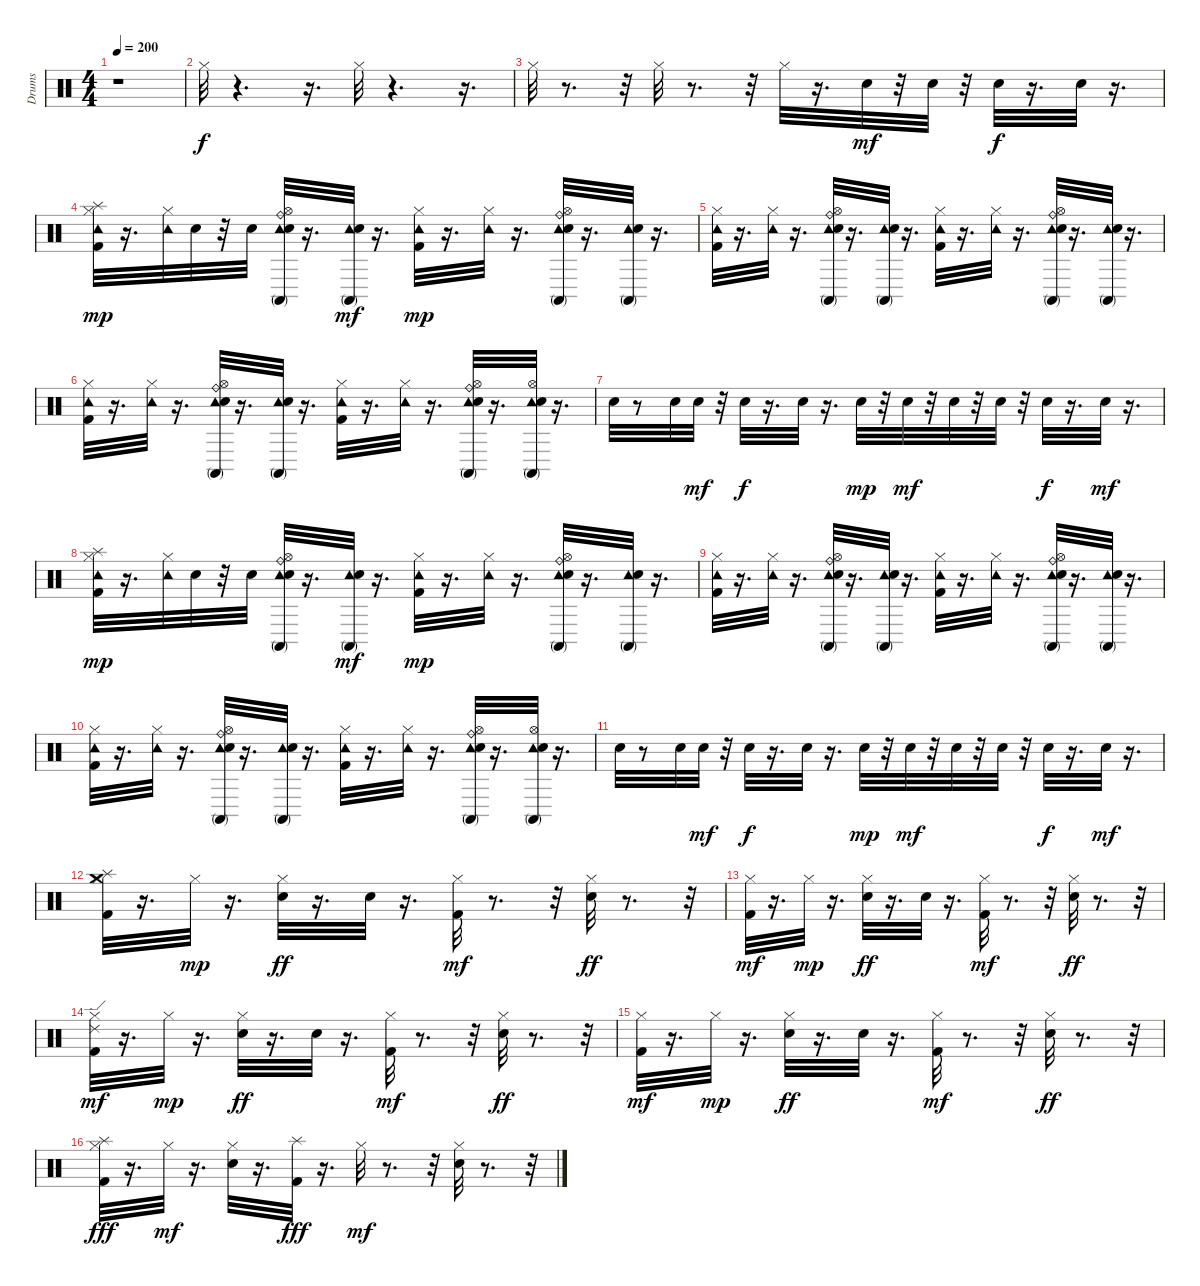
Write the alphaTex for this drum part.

\track ("Drums" "Drums") {instrument percussion}
\staff {score}
\articulation defaults
\ts (4 4)
\tempo 200
\clef neutral
\ks c
r.1{dy f} |
"Hi-Hat (closed)".32 r.4{d} r.16{d} "Hi-Hat (closed)".32 r.4{d} r.16{d} |
"Hi-Hat (closed)".32 r.8{d} r.32 "Hi-Hat (closed)".32 r.8{d} r.32 "Hi-Hat (closed)".32 r.16{d} "Electric Snare (hit)".32{dy mf} r.32 "Electric Snare (hit)".32 r.32 "Electric Snare (hit)".32{dy f} r.16{d} "Electric Snare (hit)".32 r.16{d} |
("Splash (hit)" "Kick (hit) 2" "Hi-Hat (closed)" "Tambourine (hit)").32{dy mp} r.16{d} ("Tambourine (hit)" "Hi-Hat (closed)").32 "Electric Snare (hit)".32 r.32 "Electric Snare (hit)".32 ("Tambourine (hit)" "Hi-Hat (open)" "Ride (bell)" "Electric Snare (hit)" "Conga high (mute)").32 r.16{d} ("Tambourine (hit)" "Conga high (mute)" "Electric Snare (hit)").32{dy mf} r.16{d} ("Tambourine (hit)" "Hi-Hat (closed)" "Kick (hit) 2").32{dy mp} r.16{d} ("Tambourine (hit)" "Hi-Hat (closed)").32 r.16{d} ("Tambourine (hit)" "Ride (bell)" "Hi-Hat (open)" "Conga high (mute)" "Electric Snare (hit)").32 r.16{d} ("Tambourine (hit)" "Conga high (mute)" "Electric Snare (hit)").32 r.16{d} |
("Tambourine (hit)" "Hi-Hat (closed)" "Kick (hit) 2").32 r.16{d} ("Tambourine (hit)" "Hi-Hat (closed)").32 r.16{d} ("Tambourine (hit)" "Ride (bell)" "Hi-Hat (open)" "Conga high (mute)" "Electric Snare (hit)").32 r.16{d} ("Tambourine (hit)" "Conga high (mute)" "Electric Snare (hit)").32 r.16{d} ("Tambourine (hit)" "Hi-Hat (closed)" "Kick (hit) 2").32 r.16{d} ("Tambourine (hit)" "Hi-Hat (closed)").32 r.16{d} ("Tambourine (hit)" "Ride (bell)" "Hi-Hat (open)" "Conga high (mute)" "Electric Snare (hit)").32 r.16{d} ("Tambourine (hit)" "Conga high (mute)" "Electric Snare (hit)").32 r.16{d} |
("Tambourine (hit)" "Hi-Hat (closed)" "Kick (hit) 2").32 r.16{d} ("Tambourine (hit)" "Hi-Hat (closed)").32 r.16{d} ("Tambourine (hit)" "Hi-Hat (open)" "Ride (bell)" "Conga high (mute)" "Electric Snare (hit)").32 r.16{d} ("Tambourine (hit)" "Conga high (mute)" "Electric Snare (hit)").32 r.16{d} ("Tambourine (hit)" "Hi-Hat (closed)" "Kick (hit) 2").32 r.16{d} ("Tambourine (hit)" "Hi-Hat (closed)").32 r.16{d} ("Tambourine (hit)" "Hi-Hat (open)" "Ride (bell)" "Conga high (mute)" "Electric Snare (hit)").32 r.16{d} ("Tambourine (hit)" "Conga high (mute)" "Electric Snare (hit)" "Hi-Hat (open)").32 r.16{d} |
"Electric Snare (hit)".32 r.8 "Electric Snare (hit)".32 "Electric Snare (hit)".32{dy mf} r.32 "Electric Snare (hit)".32{dy f} r.16{d} "Electric Snare (hit)".32 r.16{d} "Electric Snare (hit)".32{dy mp} r.32 "Electric Snare (hit)".32{dy mf} r.32 "Electric Snare (hit)".32 r.32 "Electric Snare (hit)".32 r.32 "Electric Snare (hit)".32{dy f} r.16{d} "Electric Snare (hit)".32{dy mf} r.16{d} |
("Splash (hit)" "Kick (hit) 2" "Hi-Hat (closed)" "Tambourine (hit)").32{dy mp} r.16{d} ("Tambourine (hit)" "Hi-Hat (closed)").32 "Electric Snare (hit)".32 r.32 "Electric Snare (hit)".32 ("Tambourine (hit)" "Hi-Hat (open)" "Ride (bell)" "Electric Snare (hit)" "Conga high (mute)").32 r.16{d} ("Tambourine (hit)" "Conga high (mute)" "Electric Snare (hit)").32{dy mf} r.16{d} ("Tambourine (hit)" "Hi-Hat (closed)" "Kick (hit) 2").32{dy mp} r.16{d} ("Tambourine (hit)" "Hi-Hat (closed)").32 r.16{d} ("Tambourine (hit)" "Ride (bell)" "Hi-Hat (open)" "Conga high (mute)" "Electric Snare (hit)").32 r.16{d} ("Tambourine (hit)" "Conga high (mute)" "Electric Snare (hit)").32 r.16{d} |
("Tambourine (hit)" "Hi-Hat (closed)" "Kick (hit) 2").32 r.16{d} ("Tambourine (hit)" "Hi-Hat (closed)").32 r.16{d} ("Tambourine (hit)" "Ride (bell)" "Hi-Hat (open)" "Conga high (mute)" "Electric Snare (hit)").32 r.16{d} ("Tambourine (hit)" "Conga high (mute)" "Electric Snare (hit)").32 r.16{d} ("Tambourine (hit)" "Hi-Hat (closed)" "Kick (hit) 2").32 r.16{d} ("Tambourine (hit)" "Hi-Hat (closed)").32 r.16{d} ("Tambourine (hit)" "Ride (bell)" "Hi-Hat (open)" "Conga high (mute)" "Electric Snare (hit)").32 r.16{d} ("Tambourine (hit)" "Conga high (mute)" "Electric Snare (hit)").32 r.16{d} |
("Tambourine (hit)" "Hi-Hat (closed)" "Kick (hit) 2").32 r.16{d} ("Tambourine (hit)" "Hi-Hat (closed)").32 r.16{d} ("Tambourine (hit)" "Hi-Hat (open)" "Ride (bell)" "Conga high (mute)" "Electric Snare (hit)").32 r.16{d} ("Tambourine (hit)" "Conga high (mute)" "Electric Snare (hit)").32 r.16{d} ("Tambourine (hit)" "Hi-Hat (closed)" "Kick (hit) 2").32 r.16{d} ("Tambourine (hit)" "Hi-Hat (closed)").32 r.16{d} ("Tambourine (hit)" "Hi-Hat (open)" "Ride (bell)" "Conga high (mute)" "Electric Snare (hit)").32 r.16{d} ("Tambourine (hit)" "Conga high (mute)" "Electric Snare (hit)" "Hi-Hat (open)").32 r.16{d} |
"Electric Snare (hit)".32 r.8 "Electric Snare (hit)".32 "Electric Snare (hit)".32{dy mf} r.32 "Electric Snare (hit)".32{dy f} r.16{d} "Electric Snare (hit)".32 r.16{d} "Electric Snare (hit)".32{dy mp} r.32 "Electric Snare (hit)".32{dy mf} r.32 "Electric Snare (hit)".32 r.32 "Electric Snare (hit)".32 r.32 "Electric Snare (hit)".32{dy f} r.16{d} "Electric Snare (hit)".32{dy mf} r.16{d} |
("Hi-Hat (closed)" "Splash (hit)" "Crash medium (hit)" "Kick (hit) 2").32 r.16{d} "Hi-Hat (closed)".32{dy mp} r.16{d} ("Hi-Hat (closed)" "Electric Snare (hit)").32{dy ff} r.16{d} "Electric Snare (hit)".32 r.16{d} ("Hi-Hat (closed)" "Kick (hit) 2").32{dy mf} r.8{d} r.32 ("Hi-Hat (closed)" "Electric Snare (hit)").32{dy ff} r.8{d} r.32 |
("Hi-Hat (closed)" "Kick (hit) 2").32{dy mf} r.16{d} "Hi-Hat (closed)".32{dy mp} r.16{d} ("Hi-Hat (closed)" "Electric Snare (hit)").32{dy ff} r.16{d} "Electric Snare (hit)".32 r.16{d} ("Hi-Hat (closed)" "Kick (hit) 2").32{dy mf} r.8{d} r.32 ("Hi-Hat (closed)" "Electric Snare (hit)").32{dy ff} r.8{d} r.32 |
("Ride (edge) 2" "Hi-Hat (closed)" "Kick (hit) 2").32{dy mf} r.16{d} "Hi-Hat (closed)".32{dy mp} r.16{d} ("Hi-Hat (closed)" "Electric Snare (hit)").32{dy ff} r.16{d} "Electric Snare (hit)".32 r.16{d} ("Hi-Hat (closed)" "Kick (hit) 2").32{dy mf} r.8{d} r.32 ("Hi-Hat (closed)" "Electric Snare (hit)").32{dy ff} r.8{d} r.32 |
("Hi-Hat (closed)" "Kick (hit) 2").32{dy mf} r.16{d} "Hi-Hat (closed)".32{dy mp} r.16{d} ("Hi-Hat (closed)" "Electric Snare (hit)").32{dy ff} r.16{d} "Electric Snare (hit)".32 r.16{d} ("Hi-Hat (closed)" "Kick (hit) 2").32{dy mf} r.8{d} r.32 ("Hi-Hat (closed)" "Electric Snare (hit)").32{dy ff} r.8{d} r.32 |
("Hi-Hat (closed)" "Kick (hit) 2" "Splash (hit)").32{dy fff} r.16{d} "Hi-Hat (closed)".32{dy mf} r.16{d} ("Hi-Hat (closed)" "Electric Snare (hit)").32 r.16{d} ("Splash (hit)" "Kick (hit) 2").32{dy fff} r.16{d} "Hi-Hat (closed)".32{dy mf} r.8{d} r.32 ("Hi-Hat (closed)" "Electric Snare (hit)").32 r.8{d} r.32
